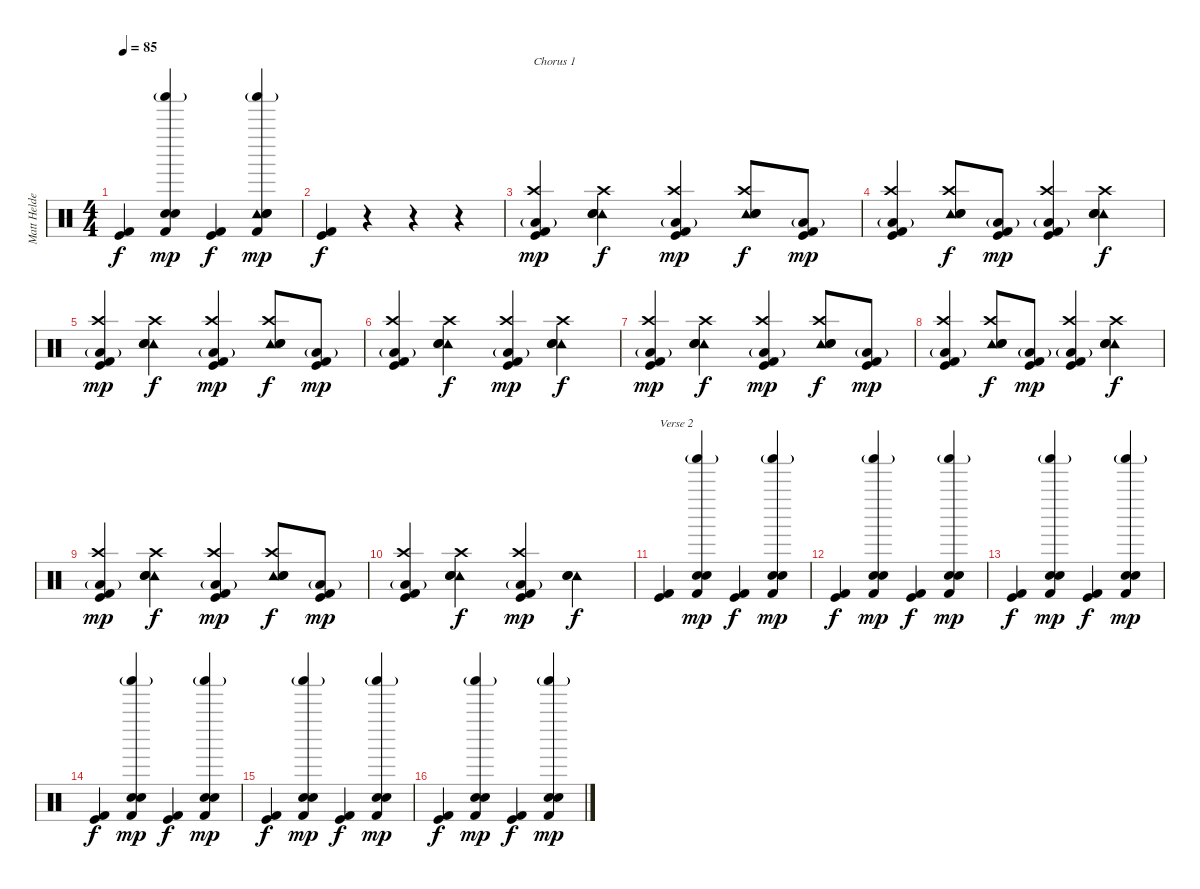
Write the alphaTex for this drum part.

\track ("Matt Helders" "Matt Helde") {instrument percussion}
\staff {score}
\articulation defaults
\ts (4 4)
\tempo 85
\clef neutral
\ks c
("Kick (hit)" "Kick (hit) 2").4{dy f} ("Hand Clap (hit)" "Shaker (hit)"{g} "Electric Snare (hit)" "Kick (hit) 2").4{dy mp} ("Kick (hit)" "Kick (hit) 2").4{dy f} ("Tambourine (hit)" "Hand Clap (hit)" "Shaker (hit)"{g} "Electric Snare (hit)" "Kick (hit) 2").4{dy mp} |
("Kick (hit)" "Kick (hit) 2").4{dy f} r.4 r.4 r.4 |
("Crash high (hit)" "Low Floor Tom (hit)"{g} "Kick (hit) 2" "Kick (hit)").4{txt "Chorus 1" dy mp} ("Crash high (hit)" "Tambourine (hit)" "Hand Clap (hit)" "Snare (hit) 2").4{dy f} ("Crash high (hit)" "Low Floor Tom (hit)"{g} "Kick (hit) 2" "Kick (hit)").4{dy mp} ("Crash high (hit)" "Tambourine (hit)" "Hand Clap (hit)" "Snare (hit) 2").8{dy f} ("Low Floor Tom (hit)"{g} "Kick (hit) 2" "Kick (hit)").8{dy mp} |
("Crash high (hit)" "Low Floor Tom (hit)"{g} "Kick (hit) 2" "Kick (hit)").4 ("Crash high (hit)" "Tambourine (hit)" "Hand Clap (hit)" "Snare (hit) 2").8{dy f} ("Low Floor Tom (hit)"{g} "Kick (hit) 2" "Kick (hit)").8{dy mp} ("Crash high (hit)" "Low Floor Tom (hit)"{g} "Kick (hit) 2" "Kick (hit)").4 ("Crash high (hit)" "Tambourine (hit)" "Hand Clap (hit)" "Snare (hit) 2").4{dy f} |
("Crash high (hit)" "Low Floor Tom (hit)"{g} "Kick (hit) 2" "Kick (hit)").4{dy mp} ("Crash high (hit)" "Tambourine (hit)" "Hand Clap (hit)" "Snare (hit) 2").4{dy f} ("Crash high (hit)" "Low Floor Tom (hit)"{g} "Kick (hit) 2" "Kick (hit)").4{dy mp} ("Crash high (hit)" "Tambourine (hit)" "Hand Clap (hit)" "Snare (hit) 2").8{dy f} ("Low Floor Tom (hit)"{g} "Kick (hit) 2" "Kick (hit)").8{dy mp} |
("Crash high (hit)" "Low Floor Tom (hit)"{g} "Kick (hit) 2" "Kick (hit)").4 ("Crash high (hit)" "Tambourine (hit)" "Hand Clap (hit)" "Snare (hit) 2").4{dy f} ("Crash high (hit)" "Low Floor Tom (hit)"{g} "Kick (hit) 2" "Kick (hit)").4{dy mp} ("Crash high (hit)" "Tambourine (hit)" "Hand Clap (hit)" "Snare (hit) 2").4{dy f} |
("Crash high (hit)" "Low Floor Tom (hit)"{g} "Kick (hit) 2" "Kick (hit)").4{dy mp} ("Crash high (hit)" "Tambourine (hit)" "Hand Clap (hit)" "Snare (hit) 2").4{dy f} ("Crash high (hit)" "Low Floor Tom (hit)"{g} "Kick (hit) 2" "Kick (hit)").4{dy mp} ("Crash high (hit)" "Tambourine (hit)" "Hand Clap (hit)" "Snare (hit) 2").8{dy f} ("Low Floor Tom (hit)"{g} "Kick (hit) 2" "Kick (hit)").8{dy mp} |
("Crash high (hit)" "Low Floor Tom (hit)"{g} "Kick (hit) 2" "Kick (hit)").4 ("Crash high (hit)" "Tambourine (hit)" "Hand Clap (hit)" "Snare (hit) 2").8{dy f} ("Low Floor Tom (hit)"{g} "Kick (hit) 2" "Kick (hit)").8{dy mp} ("Crash high (hit)" "Low Floor Tom (hit)"{g} "Kick (hit) 2" "Kick (hit)").4 ("Crash high (hit)" "Tambourine (hit)" "Hand Clap (hit)" "Snare (hit) 2").4{dy f} |
("Crash high (hit)" "Low Floor Tom (hit)"{g} "Kick (hit) 2" "Kick (hit)").4{dy mp} ("Crash high (hit)" "Tambourine (hit)" "Hand Clap (hit)" "Snare (hit) 2").4{dy f} ("Crash high (hit)" "Low Floor Tom (hit)"{g} "Kick (hit) 2" "Kick (hit)").4{dy mp} ("Crash high (hit)" "Tambourine (hit)" "Hand Clap (hit)" "Snare (hit) 2").8{dy f} ("Low Floor Tom (hit)"{g} "Kick (hit) 2" "Kick (hit)").8{dy mp} |
("Crash high (hit)" "Low Floor Tom (hit)"{g} "Kick (hit) 2" "Kick (hit)").4 ("Crash high (hit)" "Tambourine (hit)" "Hand Clap (hit)" "Snare (hit) 2").4{dy f} ("Crash high (hit)" "Low Floor Tom (hit)"{g} "Kick (hit) 2" "Kick (hit)").4{dy mp} ("Tambourine (hit)" "Hand Clap (hit)" "Snare (hit) 2").4{dy f} |
("Kick (hit)" "Kick (hit) 2").4{txt "Verse 2"} ("Hand Clap (hit)" "Shaker (hit)"{g} "Electric Snare (hit)" "Kick (hit) 2").4{dy mp} ("Kick (hit)" "Kick (hit) 2").4{dy f} ("Hand Clap (hit)" "Shaker (hit)"{g} "Electric Snare (hit)" "Kick (hit) 2").4{dy mp} |
("Kick (hit)" "Kick (hit) 2").4{dy f} ("Hand Clap (hit)" "Shaker (hit)"{g} "Electric Snare (hit)" "Kick (hit) 2").4{dy mp} ("Kick (hit)" "Kick (hit) 2").4{dy f} ("Hand Clap (hit)" "Shaker (hit)"{g} "Electric Snare (hit)" "Kick (hit) 2").4{dy mp} |
("Kick (hit)" "Kick (hit) 2").4{dy f} ("Hand Clap (hit)" "Shaker (hit)"{g} "Electric Snare (hit)" "Kick (hit) 2").4{dy mp} ("Kick (hit)" "Kick (hit) 2").4{dy f} ("Hand Clap (hit)" "Shaker (hit)"{g} "Electric Snare (hit)" "Kick (hit) 2").4{dy mp} |
("Kick (hit)" "Kick (hit) 2").4{dy f} ("Hand Clap (hit)" "Shaker (hit)"{g} "Electric Snare (hit)" "Kick (hit) 2").4{dy mp} ("Kick (hit)" "Kick (hit) 2").4{dy f} ("Hand Clap (hit)" "Shaker (hit)"{g} "Electric Snare (hit)" "Kick (hit) 2").4{dy mp} |
("Kick (hit)" "Kick (hit) 2").4{dy f} ("Hand Clap (hit)" "Shaker (hit)"{g} "Electric Snare (hit)" "Kick (hit) 2").4{dy mp} ("Kick (hit)" "Kick (hit) 2").4{dy f} ("Hand Clap (hit)" "Shaker (hit)"{g} "Electric Snare (hit)" "Kick (hit) 2").4{dy mp} |
("Kick (hit)" "Kick (hit) 2").4{dy f} ("Hand Clap (hit)" "Shaker (hit)"{g} "Electric Snare (hit)" "Kick (hit) 2").4{dy mp} ("Kick (hit)" "Kick (hit) 2").4{dy f} ("Hand Clap (hit)" "Shaker (hit)"{g} "Electric Snare (hit)" "Kick (hit) 2").4{dy mp}
